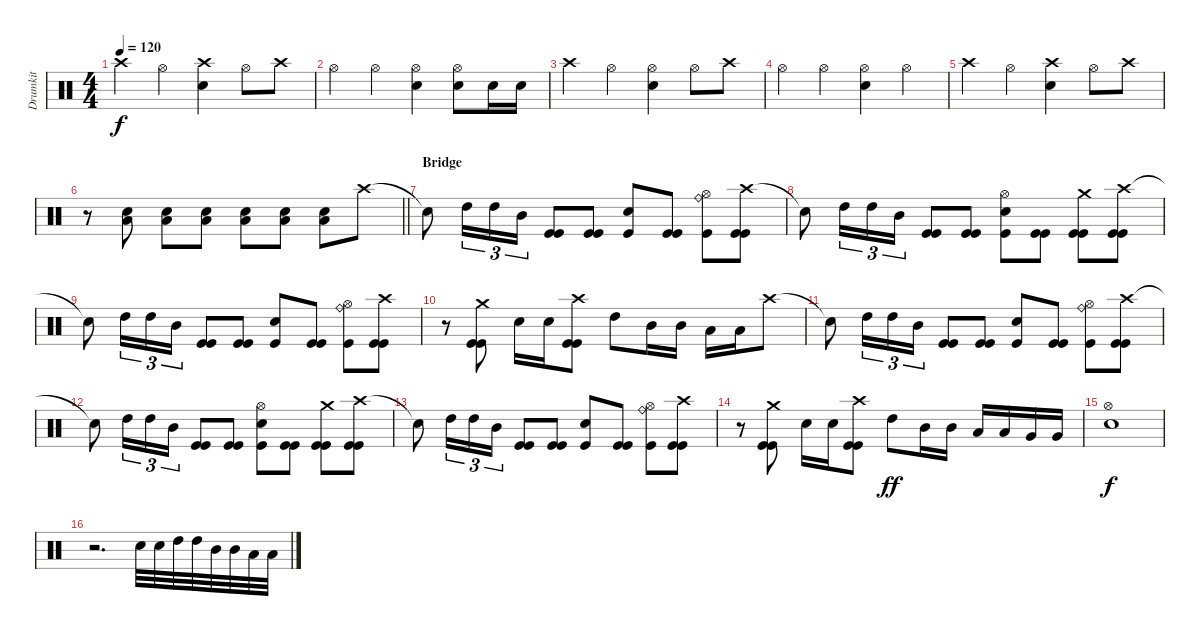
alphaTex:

\track ("Drumkit" "Drumkit") {instrument percussion}
\staff {score}
\articulation defaults
\ts (4 4)
\tempo 120
\clef neutral
\ks c "Crash high (hit)".4{dy f} "Hi-Hat (open)".4
("Crash high (hit)" "Electric Snare (hit)").4 "Hi-Hat (open)".8 "Crash high (hit)".8 |
"Hi-Hat (open)".4 "Hi-Hat (open)".4 ("Hi-Hat (open)" "Electric Snare (hit)").4 ("Hi-Hat (open)" "Electric Snare (hit)").8 "Electric Snare (hit)".16 "Electric Snare (hit)".16 |
"Crash high (hit)".4 "Hi-Hat (open)".4 ("Hi-Hat (open)" "Electric Snare (hit)").4 "Hi-Hat (open)".8 "Crash high (hit)".8 |
"Hi-Hat (open)".4 "Hi-Hat (open)".4 ("Hi-Hat (open)" "Electric Snare (hit)").4 "Hi-Hat (open)".4 |
"Crash high (hit)".4 "Hi-Hat (open)".4 ("Crash high (hit)" "Electric Snare (hit)").4 "Hi-Hat (open)".8 "Crash high (hit)".8 |
\barLineRight lightlight
r.8 ("Low Floor Tom (hit)" "Electric Snare (hit)").8 ("Low Floor Tom (hit)" "Electric Snare (hit)").8 ("Low Floor Tom (hit)" "Electric Snare (hit)").8 ("Low Floor Tom (hit)" "Electric Snare (hit)").8 ("Low Floor Tom (hit)" "Electric Snare (hit)").8 ("Low Floor Tom (hit)" "Electric Snare (hit)").8 "Crash high (hit)".8 |
\section ("" "Bridge")
"Snare (hit)"{t}.8 "High Tom (hit)".16{tu (3 2)} "High Tom (hit)".16{tu (3 2)} "Mid Tom (hit)".16{tu (3 2)} ("Kick (hit)" "Kick (hit)").8 ("Kick (hit)" "Kick (hit)").8 ("Electric Snare (hit)" "Kick (hit)").8 ("Kick (hit)" "Kick (hit)").8 ("Hi-Hat (open)" "Ride (bell)" "Kick (hit)").8 ("Crash high (hit)" "Kick (hit)" "Kick (hit)").8 |
"Snare (hit)"{t}.8 "High Tom (hit)".16{tu (3 2)} "High Tom (hit)".16{tu (3 2)} "Mid Tom (hit)".16{tu (3 2)} ("Kick (hit)" "Kick (hit)").8 ("Kick (hit)" "Kick (hit)").8 ("Hi-Hat (open)" "Electric Snare (hit)" "Kick (hit)").8 ("Kick (hit)" "Kick (hit)").8 ("Crash medium (hit)" "Kick (hit)" "Kick (hit)").8 ("Crash high (hit)" "Kick (hit)" "Kick (hit)").8 |
"Snare (hit)"{t}.8 "High Tom (hit)".16{tu (3 2)} "High Tom (hit)".16{tu (3 2)} "Mid Tom (hit)".16{tu (3 2)} ("Kick (hit)" "Kick (hit)").8 ("Kick (hit)" "Kick (hit)").8 ("Electric Snare (hit)" "Kick (hit)").8 ("Kick (hit)" "Kick (hit)").8 ("Hi-Hat (open)" "Ride (bell)" "Kick (hit)").8 ("Crash high (hit)" "Kick (hit)" "Kick (hit)").8 |
r.8 ("Crash medium (hit)" "Kick (hit)" "Kick (hit)").8 "Electric Snare (hit)".16 "Electric Snare (hit)".16 ("Crash high (hit)" "Kick (hit)" "Kick (hit)").8 "High Tom (hit)".8 "Mid Tom (hit)".16 "Mid Tom (hit)".16 "Low Tom (hit)".16 "Low Tom (hit)".16 "Crash high (hit)".8 |
"Snare (hit)"{t}.8 "High Tom (hit)".16{tu (3 2)} "High Tom (hit)".16{tu (3 2)} "Mid Tom (hit)".16{tu (3 2)} ("Kick (hit)" "Kick (hit)").8 ("Kick (hit)" "Kick (hit)").8 ("Electric Snare (hit)" "Kick (hit)").8 ("Kick (hit)" "Kick (hit)").8 ("Hi-Hat (open)" "Ride (bell)" "Kick (hit)").8 ("Crash high (hit)" "Kick (hit)" "Kick (hit)").8 |
"Snare (hit)"{t}.8 "High Tom (hit)".16{tu (3 2)} "High Tom (hit)".16{tu (3 2)} "Mid Tom (hit)".16{tu (3 2)} ("Kick (hit)" "Kick (hit)").8 ("Kick (hit)" "Kick (hit)").8 ("Hi-Hat (open)" "Electric Snare (hit)" "Kick (hit)").8 ("Kick (hit)" "Kick (hit)").8 ("Crash medium (hit)" "Kick (hit)" "Kick (hit)").8 ("Crash high (hit)" "Kick (hit)" "Kick (hit)").8 |
"Snare (hit)"{t}.8 "High Tom (hit)".16{tu (3 2)} "High Tom (hit)".16{tu (3 2)} "Mid Tom (hit)".16{tu (3 2)} ("Kick (hit)" "Kick (hit)").8 ("Kick (hit)" "Kick (hit)").8 ("Electric Snare (hit)" "Kick (hit)").8 ("Kick (hit)" "Kick (hit)").8 ("Hi-Hat (open)" "Ride (bell)" "Kick (hit)").8 ("Crash high (hit)" "Kick (hit)" "Kick (hit)").8 |
r.8 ("Crash medium (hit)" "Kick (hit)" "Kick (hit)").8 "Electric Snare (hit)".16 "Electric Snare (hit)".16 ("Crash high (hit)" "Kick (hit)" "Kick (hit)").8 "High Tom (hit)".8{dy ff} "Mid Tom (hit)".16 "Mid Tom (hit)".16 "Low Tom (hit)".16 "Low Tom (hit)".16 "Very Low Tom (hit)".16 "Very Low Tom (hit)".16 |
("Hi-Hat (open)" "Electric Snare (hit)").1{dy f} |
r.2{d} "Electric Snare (hit)".32 "Electric Snare (hit)".32 "High Tom (hit)".32 "High Tom (hit)".32 "Mid Tom (hit)".32 "Mid Tom (hit)".32 "Low Tom (hit)".32 "Low Tom (hit)".32
